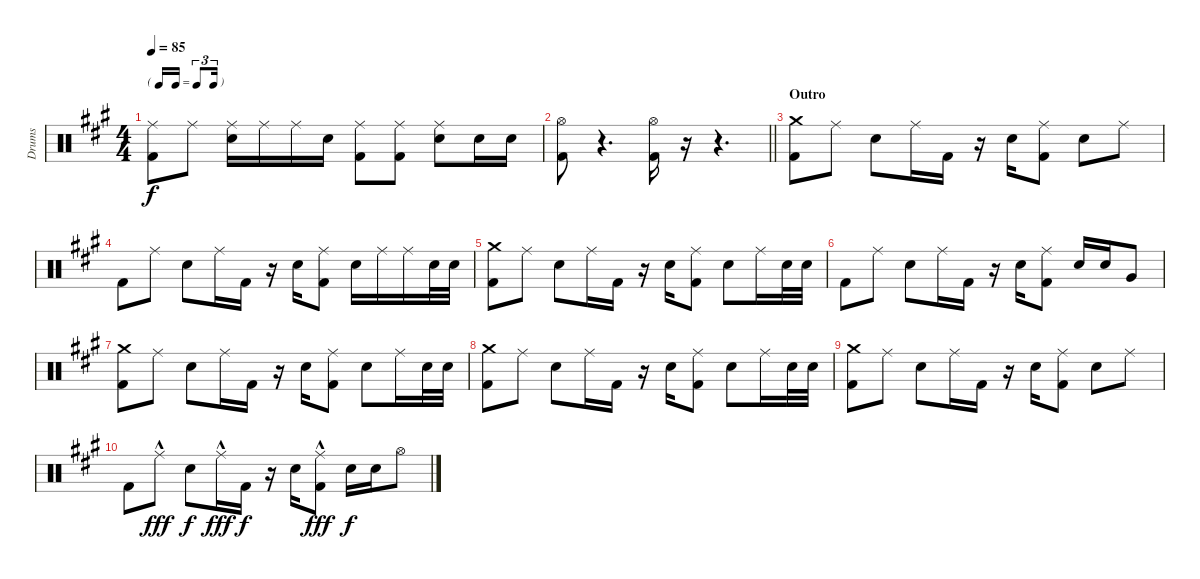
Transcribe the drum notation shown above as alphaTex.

\track ("Drums" "Drums") {instrument percussion}
\staff {score}
\articulation defaults
\ts (4 4)
\tf triplet16th
\tempo 85
\clef neutral
\ks a
("Ride (middle)" "Kick (hit) 2").8{dy f} "Ride (middle)".8 ("Ride (middle)" "Snare (hit) 2").16 "Ride (middle)".16 "Ride (middle)".16 "Snare (hit) 2".16 ("Ride (middle)" "Kick (hit) 2").8 ("Ride (middle)" "Kick (hit) 2").8 ("Ride (middle)" "Snare (hit) 2").8 "Snare (hit) 2".16 "Snare (hit) 2".16 |
\barLineRight lightlight
("Hi-Hat (open)" "Kick (hit) 2").8 r.4{d} ("Hi-Hat (open)" "Kick (hit) 2").16 r.16 r.4{d} |
\section ("" "Outro")
("Crash medium (hit)" "Kick (hit) 2").8 "Ride (middle)".8 "Snare (hit) 2".8 "Ride (middle)".16 "Kick (hit) 2".16 r.16 "Snare (hit) 2".16 ("Ride (middle)" "Kick (hit) 2").8 "Snare (hit) 2".8 "Ride (middle)".8 |
"Kick (hit) 2".8 "Ride (middle)".8 "Snare (hit) 2".8 "Ride (middle)".16 "Kick (hit) 2".16 r.16 "Snare (hit) 2".16 ("Ride (middle)" "Kick (hit) 2").8 "Snare (hit) 2".16 "Ride (middle)".16 "Ride (middle)".16 "Snare (hit) 2".32 "Snare (hit) 2".32 |
("Crash medium (hit)" "Kick (hit) 2").8 "Ride (middle)".8 "Snare (hit) 2".8 "Ride (middle)".16 "Kick (hit) 2".16 r.16 "Snare (hit) 2".16 ("Ride (middle)" "Kick (hit) 2").8 "Snare (hit) 2".8 "Ride (middle)".16 "Snare (hit) 2".32 "Snare (hit) 2".32 |
"Kick (hit) 2".8 "Ride (middle)".8 "Snare (hit) 2".8 "Ride (middle)".16 "Kick (hit) 2".16 r.16 "Snare (hit) 2".16 ("Ride (middle)" "Kick (hit) 2").8 "Snare (hit) 2".16 "Snare (hit) 2".16 "Very Low Tom (hit)".8 |
("Crash medium (hit)" "Kick (hit) 2").8 "Ride (middle)".8 "Snare (hit) 2".8 "Ride (middle)".16 "Kick (hit) 2".16 r.16 "Snare (hit) 2".16 ("Ride (middle)" "Kick (hit) 2").8 "Snare (hit) 2".8 "Ride (middle)".16 "Snare (hit) 2".32 "Snare (hit) 2".32 |
("Crash medium (hit)" "Kick (hit) 2").8 "Ride (middle)".8 "Snare (hit) 2".8 "Ride (middle)".16 "Kick (hit) 2".16 r.16 "Snare (hit) 2".16 ("Ride (middle)" "Kick (hit) 2").8 "Snare (hit) 2".8 "Ride (middle)".16 "Snare (hit) 2".32 "Snare (hit) 2".32 |
("Crash medium (hit)" "Kick (hit) 2").8 "Ride (middle)".8 "Snare (hit) 2".8 "Ride (middle)".16 "Kick (hit) 2".16 r.16 "Snare (hit) 2".16 ("Ride (middle)" "Kick (hit) 2").8 "Snare (hit) 2".8 "Ride (middle)".8 |
"Kick (hit) 2".8 "Ride (middle)"{hac}.8{dy fff} "Snare (hit) 2".8{dy f} "Ride (middle)"{hac}.16{dy fff} "Kick (hit) 2".16{dy f} r.16 "Snare (hit) 2".16 ("Ride (middle)"{hac} "Kick (hit) 2").8{dy fff} "Snare (hit) 2".16{dy f} "Snare (hit) 2".16 "Hi-Hat (open)".8
